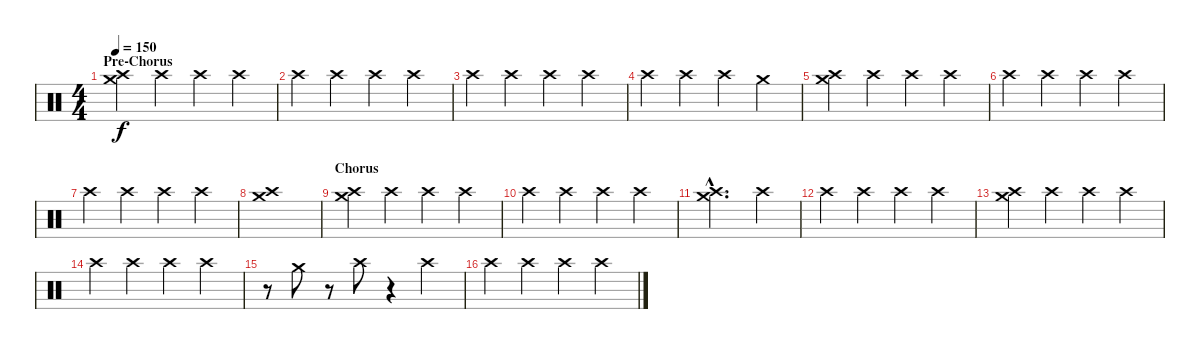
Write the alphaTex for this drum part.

\track "" {instrument percussion}
\staff {score}
\articulation defaults
\ts (4 4)
\section ("" "Pre-Chorus")
\tempo 150
\clef neutral
\ks c
("Crash medium (hit)" "Crash high (hit)").4{dy f} "Crash high (hit)".4 "Crash high (hit)".4 "Crash high (hit)".4 |
"Crash high (hit)".4 "Crash high (hit)".4 "Crash high (hit)".4 "Crash high (hit)".4 |
"Crash high (hit)".4 "Crash high (hit)".4 "Crash high (hit)".4 "Crash high (hit)".4 |
"Crash high (hit)".4 "Crash high (hit)".4 "Crash high (hit)".4 "Crash medium (hit)".4 |
("Crash medium (hit)" "Crash high (hit)").4 "Crash high (hit)".4 "Crash high (hit)".4 "Crash high (hit)".4 |
"Crash high (hit)".4 "Crash high (hit)".4 "Crash high (hit)".4 "Crash high (hit)".4 |
"Crash high (hit)".4 "Crash high (hit)".4 "Crash high (hit)".4 "Crash high (hit)".4 |
("Crash medium (hit)" "Crash high (hit)").1 |
\section ("" "Chorus")
("Crash medium (hit)" "Crash high (hit)").4 "Crash high (hit)".4 "Crash high (hit)".4 "Crash high (hit)".4 |
"Crash high (hit)".4 "Crash high (hit)".4 "Crash high (hit)".4 "Crash high (hit)".4 |
("Crash medium (hit)"{hac} "Crash high (hit)"{hac}).2{d} "Crash high (hit)".4 |
"Crash high (hit)".4 "Crash high (hit)".4 "Crash high (hit)".4 "Crash high (hit)".4 |
("Crash medium (hit)" "Crash high (hit)").4 "Crash high (hit)".4 "Crash high (hit)".4 "Crash high (hit)".4 |
"Crash high (hit)".4 "Crash high (hit)".4 "Crash high (hit)".4 "Crash high (hit)".4 |
r.8 "Crash medium (hit)".8 r.8 "Crash high (hit)".8 r.4 "Crash high (hit)".4 |
"Crash high (hit)".4 "Crash high (hit)".4 "Crash high (hit)".4 "Crash high (hit)".4
